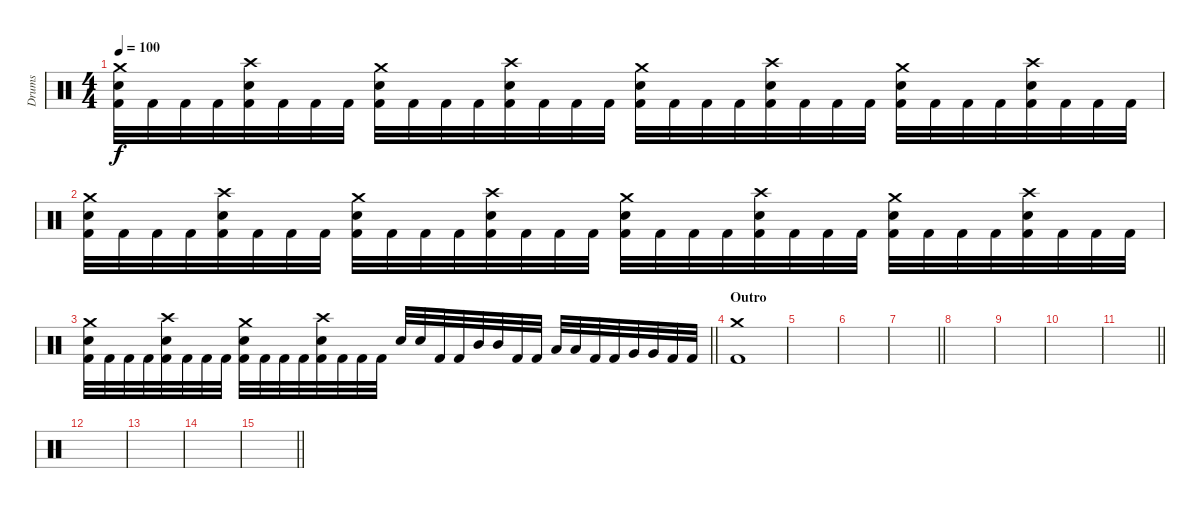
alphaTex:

\track ("Drums" "Drums") {instrument percussion}
\staff {score}
\articulation defaults
\ts (4 4)
\tempo 100
\clef neutral
\ks c
("Crash medium (hit)" "Snare (hit) 2" "Kick (hit) 2").32{dy f} "Kick (hit) 2".32 "Kick (hit) 2".32 "Kick (hit) 2".32 ("Crash high (hit)" "Snare (hit) 2" "Kick (hit) 2").32 "Kick (hit) 2".32 "Kick (hit) 2".32 "Kick (hit) 2".32 ("Crash medium (hit)" "Snare (hit) 2" "Kick (hit) 2").32 "Kick (hit) 2".32 "Kick (hit) 2".32 "Kick (hit) 2".32 ("Crash high (hit)" "Snare (hit) 2" "Kick (hit) 2").32 "Kick (hit) 2".32 "Kick (hit) 2".32 "Kick (hit) 2".32 ("Crash medium (hit)" "Snare (hit) 2" "Kick (hit) 2").32 "Kick (hit) 2".32 "Kick (hit) 2".32 "Kick (hit) 2".32 ("Crash high (hit)" "Snare (hit) 2" "Kick (hit) 2").32 "Kick (hit) 2".32 "Kick (hit) 2".32 "Kick (hit) 2".32 ("Crash medium (hit)" "Snare (hit) 2" "Kick (hit) 2").32 "Kick (hit) 2".32 "Kick (hit) 2".32 "Kick (hit) 2".32 ("Crash high (hit)" "Snare (hit) 2" "Kick (hit) 2").32 "Kick (hit) 2".32 "Kick (hit) 2".32 "Kick (hit) 2".32 |
("Crash medium (hit)" "Snare (hit) 2" "Kick (hit) 2").32 "Kick (hit) 2".32 "Kick (hit) 2".32 "Kick (hit) 2".32 ("Crash high (hit)" "Snare (hit) 2" "Kick (hit) 2").32 "Kick (hit) 2".32 "Kick (hit) 2".32 "Kick (hit) 2".32 ("Crash medium (hit)" "Snare (hit) 2" "Kick (hit) 2").32 "Kick (hit) 2".32 "Kick (hit) 2".32 "Kick (hit) 2".32 ("Crash high (hit)" "Snare (hit) 2" "Kick (hit) 2").32 "Kick (hit) 2".32 "Kick (hit) 2".32 "Kick (hit) 2".32 ("Crash medium (hit)" "Snare (hit) 2" "Kick (hit) 2").32 "Kick (hit) 2".32 "Kick (hit) 2".32 "Kick (hit) 2".32 ("Crash high (hit)" "Snare (hit) 2" "Kick (hit) 2").32 "Kick (hit) 2".32 "Kick (hit) 2".32 "Kick (hit) 2".32 ("Crash medium (hit)" "Snare (hit) 2" "Kick (hit) 2").32 "Kick (hit) 2".32 "Kick (hit) 2".32 "Kick (hit) 2".32 ("Crash high (hit)" "Snare (hit) 2" "Kick (hit) 2").32 "Kick (hit) 2".32 "Kick (hit) 2".32 "Kick (hit) 2".32 |
\barLineRight lightlight
("Crash medium (hit)" "Snare (hit) 2" "Kick (hit) 2").32 "Kick (hit) 2".32 "Kick (hit) 2".32 "Kick (hit) 2".32 ("Crash high (hit)" "Snare (hit) 2" "Kick (hit) 2").32 "Kick (hit) 2".32 "Kick (hit) 2".32 "Kick (hit) 2".32 ("Crash medium (hit)" "Snare (hit) 2" "Kick (hit) 2").32 "Kick (hit) 2".32 "Kick (hit) 2".32 "Kick (hit) 2".32 ("Crash high (hit)" "Snare (hit) 2" "Kick (hit) 2").32 "Kick (hit) 2".32 "Kick (hit) 2".32 "Kick (hit) 2".32 "Snare (hit) 2".32 "Snare (hit) 2".32 "Kick (hit) 2".32 "Kick (hit) 2".32 "Mid Tom (hit)".32 "Mid Tom (hit)".32 "Kick (hit) 2".32 "Kick (hit) 2".32 "Low Tom (hit)".32 "Low Tom (hit)".32 "Kick (hit) 2".32 "Kick (hit) 2".32 "Very Low Tom (hit)".32 "Very Low Tom (hit)".32 "Kick (hit) 2".32 "Kick (hit) 2".32 |
\section ("" "Outro")
("Crash medium (hit)" "Kick (hit) 2").1 |
|
|
\barLineRight lightlight
|
|
|
|
\barLineRight lightlight
|
|
|
|
\barLineRight lightlight
